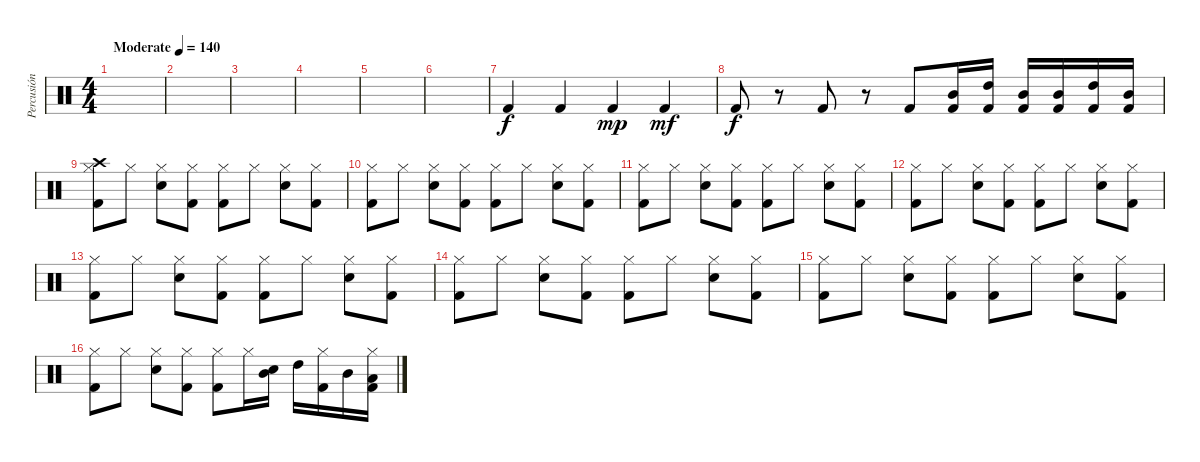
\track ("Percusión" "Percusión") {instrument percussion}
\staff {score}
\articulation defaults
\ts (4 4)
\tempo (140 "Moderate")
\clef neutral
\ks c
|
|
|
|
|
|
"Kick (hit) 2".4 "Kick (hit) 2".4 "Kick (hit) 2".4{dy mp} "Kick (hit) 2".4{dy mf} |
"Kick (hit) 2".8{dy f} r.8 "Kick (hit) 2".8 r.8 "Kick (hit) 2".8 ("Mid Tom (hit)" "Kick (hit) 2").16 ("High Tom (hit)" "Kick (hit) 2").16 ("Mid Tom (hit)" "Kick (hit) 2").16 ("Mid Tom (hit)" "Kick (hit) 2").16 ("High Tom (hit)" "Kick (hit) 2").16 ("Mid Tom (hit)" "Kick (hit) 2").16 |
("Hi-Hat (closed)" "Kick (hit) 2" "Crash high (hit)").8 "Hi-Hat (closed)".8 ("Hi-Hat (closed)" "Snare (hit) 2").8 ("Hi-Hat (closed)" "Kick (hit) 2").8 ("Hi-Hat (closed)" "Kick (hit) 2").8 "Hi-Hat (closed)".8 ("Hi-Hat (closed)" "Snare (hit) 2").8 ("Hi-Hat (closed)" "Kick (hit) 2").8 |
("Hi-Hat (closed)" "Kick (hit) 2").8 "Hi-Hat (closed)".8 ("Hi-Hat (closed)" "Snare (hit) 2").8 ("Hi-Hat (closed)" "Kick (hit) 2").8 ("Hi-Hat (closed)" "Kick (hit) 2").8 "Hi-Hat (closed)".8 ("Hi-Hat (closed)" "Snare (hit) 2").8 ("Hi-Hat (closed)" "Kick (hit) 2").8 |
("Hi-Hat (closed)" "Kick (hit) 2").8 "Hi-Hat (closed)".8 ("Hi-Hat (closed)" "Snare (hit) 2").8 ("Hi-Hat (closed)" "Kick (hit) 2").8 ("Hi-Hat (closed)" "Kick (hit) 2").8 "Hi-Hat (closed)".8 ("Hi-Hat (closed)" "Snare (hit) 2").8 ("Hi-Hat (closed)" "Kick (hit) 2").8 |
("Hi-Hat (closed)" "Kick (hit) 2").8 "Hi-Hat (closed)".8 ("Hi-Hat (closed)" "Snare (hit) 2").8 ("Hi-Hat (closed)" "Kick (hit) 2").8 ("Hi-Hat (closed)" "Kick (hit) 2").8 "Hi-Hat (closed)".8 ("Hi-Hat (closed)" "Snare (hit) 2").8 ("Hi-Hat (closed)" "Kick (hit) 2").8 |
("Hi-Hat (closed)" "Kick (hit) 2").8 "Hi-Hat (closed)".8 ("Hi-Hat (closed)" "Snare (hit) 2").8 ("Hi-Hat (closed)" "Kick (hit) 2").8 ("Hi-Hat (closed)" "Kick (hit) 2").8 "Hi-Hat (closed)".8 ("Hi-Hat (closed)" "Snare (hit) 2").8 ("Hi-Hat (closed)" "Kick (hit) 2").8 |
("Hi-Hat (closed)" "Kick (hit) 2").8 "Hi-Hat (closed)".8 ("Hi-Hat (closed)" "Snare (hit) 2").8 ("Hi-Hat (closed)" "Kick (hit) 2").8 ("Hi-Hat (closed)" "Kick (hit) 2").8 "Hi-Hat (closed)".8 ("Hi-Hat (closed)" "Snare (hit) 2").8 ("Hi-Hat (closed)" "Kick (hit) 2").8 |
("Hi-Hat (closed)" "Kick (hit) 2").8 "Hi-Hat (closed)".8 ("Hi-Hat (closed)" "Snare (hit) 2").8 ("Hi-Hat (closed)" "Kick (hit) 2").8 ("Hi-Hat (closed)" "Kick (hit) 2").8 "Hi-Hat (closed)".8 ("Hi-Hat (closed)" "Snare (hit) 2").8 ("Hi-Hat (closed)" "Kick (hit) 2").8 |
("Hi-Hat (closed)" "Kick (hit) 2").8 "Hi-Hat (closed)".8 ("Hi-Hat (closed)" "Snare (hit) 2").8 ("Hi-Hat (closed)" "Kick (hit) 2").8 ("Hi-Hat (closed)" "Kick (hit) 2").8 "Hi-Hat (closed)".16 ("Mid Tom (hit)" "Snare (hit) 2").16 "High Tom (hit)".16 ("Hi-Hat (closed)" "Kick (hit) 2").16 "Mid Tom (hit)".16 ("Hi-Hat (closed)" "Low Tom (hit)" "Kick (hit) 2").16
